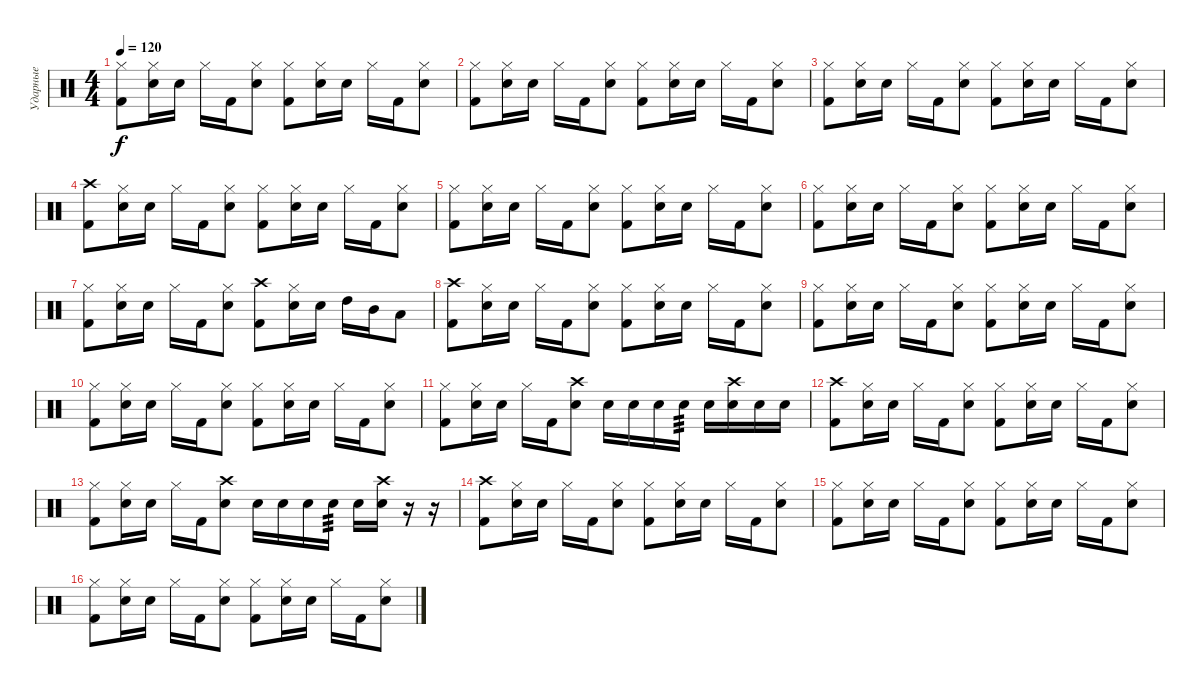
\track ("Ударные" "Ударные") {instrument percussion}
\staff {score}
\articulation defaults
\ts (4 4)
\tempo 120
\clef neutral
\ks c
("Kick (hit) 2" "Hi-Hat (closed)").8{dy f} ("Electric Snare (hit)" "Hi-Hat (closed)").16 "Electric Snare (hit)".16 "Hi-Hat (closed)".16 "Kick (hit) 2".16 ("Electric Snare (hit)" "Hi-Hat (closed)").8 ("Kick (hit) 2" "Hi-Hat (closed)").8 ("Electric Snare (hit)" "Hi-Hat (closed)").16 "Electric Snare (hit)".16 "Hi-Hat (closed)".16 "Kick (hit) 2".16 ("Electric Snare (hit)" "Hi-Hat (closed)").8 |
("Kick (hit) 2" "Hi-Hat (closed)").8 ("Electric Snare (hit)" "Hi-Hat (closed)").16 "Electric Snare (hit)".16 "Hi-Hat (closed)".16 "Kick (hit) 2".16 ("Electric Snare (hit)" "Hi-Hat (closed)").8 ("Kick (hit) 2" "Hi-Hat (closed)").8 ("Electric Snare (hit)" "Hi-Hat (closed)").16 "Electric Snare (hit)".16 "Hi-Hat (closed)".16 "Kick (hit) 2".16 ("Electric Snare (hit)" "Hi-Hat (closed)").8 |
("Kick (hit) 2" "Hi-Hat (closed)").8 ("Electric Snare (hit)" "Hi-Hat (closed)").16 "Electric Snare (hit)".16 "Hi-Hat (closed)".16 "Kick (hit) 2".16 ("Electric Snare (hit)" "Hi-Hat (closed)").8 ("Kick (hit) 2" "Hi-Hat (closed)").8 ("Electric Snare (hit)" "Hi-Hat (closed)").16 "Electric Snare (hit)".16 "Hi-Hat (closed)".16 "Kick (hit) 2".16 ("Electric Snare (hit)" "Hi-Hat (closed)").8 |
("Kick (hit) 2" "Crash high (hit)").8 ("Electric Snare (hit)" "Hi-Hat (closed)").16 "Electric Snare (hit)".16 "Hi-Hat (closed)".16 "Kick (hit) 2".16 ("Electric Snare (hit)" "Hi-Hat (closed)").8 ("Kick (hit) 2" "Hi-Hat (closed)").8 ("Electric Snare (hit)" "Hi-Hat (closed)").16 "Electric Snare (hit)".16 "Hi-Hat (closed)".16 "Kick (hit) 2".16 ("Electric Snare (hit)" "Hi-Hat (closed)").8 |
("Kick (hit) 2" "Hi-Hat (closed)").8 ("Electric Snare (hit)" "Hi-Hat (closed)").16 "Electric Snare (hit)".16 "Hi-Hat (closed)".16 "Kick (hit) 2".16 ("Electric Snare (hit)" "Hi-Hat (closed)").8 ("Kick (hit) 2" "Hi-Hat (closed)").8 ("Electric Snare (hit)" "Hi-Hat (closed)").16 "Electric Snare (hit)".16 "Hi-Hat (closed)".16 "Kick (hit) 2".16 ("Electric Snare (hit)" "Hi-Hat (closed)").8 |
("Kick (hit) 2" "Hi-Hat (closed)").8 ("Electric Snare (hit)" "Hi-Hat (closed)").16 "Electric Snare (hit)".16 "Hi-Hat (closed)".16 "Kick (hit) 2".16 ("Electric Snare (hit)" "Hi-Hat (closed)").8 ("Kick (hit) 2" "Hi-Hat (closed)").8 ("Electric Snare (hit)" "Hi-Hat (closed)").16 "Electric Snare (hit)".16 "Hi-Hat (closed)".16 "Kick (hit) 2".16 ("Electric Snare (hit)" "Hi-Hat (closed)").8 |
("Kick (hit) 2" "Hi-Hat (closed)").8 ("Electric Snare (hit)" "Hi-Hat (closed)").16 "Electric Snare (hit)".16 "Hi-Hat (closed)".16 "Kick (hit) 2".16 ("Electric Snare (hit)" "Hi-Hat (closed)").8 ("Kick (hit) 2" "Crash high (hit)").8 ("Electric Snare (hit)" "Hi-Hat (closed)").16 "Electric Snare (hit)".16 "High Tom (hit)".16 "Mid Tom (hit)".16 "Low Tom (hit)".8 |
("Kick (hit) 2" "Crash high (hit)").8 ("Electric Snare (hit)" "Hi-Hat (closed)").16 "Electric Snare (hit)".16 "Hi-Hat (closed)".16 "Kick (hit) 2".16 ("Electric Snare (hit)" "Hi-Hat (closed)").8 ("Kick (hit) 2" "Hi-Hat (closed)").8 ("Electric Snare (hit)" "Hi-Hat (closed)").16 "Electric Snare (hit)".16 "Hi-Hat (closed)".16 "Kick (hit) 2".16 ("Electric Snare (hit)" "Hi-Hat (closed)").8 |
("Kick (hit) 2" "Hi-Hat (closed)").8 ("Electric Snare (hit)" "Hi-Hat (closed)").16 "Electric Snare (hit)".16 "Hi-Hat (closed)".16 "Kick (hit) 2".16 ("Electric Snare (hit)" "Hi-Hat (closed)").8 ("Kick (hit) 2" "Hi-Hat (closed)").8 ("Electric Snare (hit)" "Hi-Hat (closed)").16 "Electric Snare (hit)".16 "Hi-Hat (closed)".16 "Kick (hit) 2".16 ("Electric Snare (hit)" "Hi-Hat (closed)").8 |
("Kick (hit) 2" "Hi-Hat (closed)").8 ("Electric Snare (hit)" "Hi-Hat (closed)").16 "Electric Snare (hit)".16 "Hi-Hat (closed)".16 "Kick (hit) 2".16 ("Electric Snare (hit)" "Hi-Hat (closed)").8 ("Kick (hit) 2" "Hi-Hat (closed)").8 ("Electric Snare (hit)" "Hi-Hat (closed)").16 "Electric Snare (hit)".16 "Hi-Hat (closed)".16 "Kick (hit) 2".16 ("Electric Snare (hit)" "Hi-Hat (closed)").8 |
("Kick (hit) 2" "Hi-Hat (closed)").8 ("Electric Snare (hit)" "Hi-Hat (closed)").16 "Electric Snare (hit)".16 "Hi-Hat (closed)".16 "Kick (hit) 2".16 ("Electric Snare (hit)" "Crash high (hit)").8 "Electric Snare (hit)".16 "Electric Snare (hit)".16 "Electric Snare (hit)".16 "Electric Snare (hit)".16{tp 3} "Electric Snare (hit)".16 ("Electric Snare (hit)" "Crash high (hit)").16 "Electric Snare (hit)".16 "Electric Snare (hit)".16 |
("Kick (hit) 2" "Crash high (hit)").8 ("Electric Snare (hit)" "Hi-Hat (closed)").16 "Electric Snare (hit)".16 "Hi-Hat (closed)".16 "Kick (hit) 2".16 ("Electric Snare (hit)" "Hi-Hat (closed)").8 ("Kick (hit) 2" "Hi-Hat (closed)").8 ("Electric Snare (hit)" "Hi-Hat (closed)").16 "Electric Snare (hit)".16 "Hi-Hat (closed)".16 "Kick (hit) 2".16 ("Electric Snare (hit)" "Hi-Hat (closed)").8 |
("Kick (hit) 2" "Hi-Hat (closed)").8 ("Electric Snare (hit)" "Hi-Hat (closed)").16 "Electric Snare (hit)".16 "Hi-Hat (closed)".16 "Kick (hit) 2".16 ("Electric Snare (hit)" "Crash high (hit)").8 "Electric Snare (hit)".16 "Electric Snare (hit)".16 "Electric Snare (hit)".16 "Electric Snare (hit)".16{tp 3} "Electric Snare (hit)".16 ("Electric Snare (hit)" "Crash high (hit)").16 r.16 r.16 |
("Kick (hit) 2" "Crash high (hit)").8 ("Electric Snare (hit)" "Hi-Hat (closed)").16 "Electric Snare (hit)".16 "Hi-Hat (closed)".16 "Kick (hit) 2".16 ("Electric Snare (hit)" "Hi-Hat (closed)").8 ("Kick (hit) 2" "Hi-Hat (closed)").8 ("Electric Snare (hit)" "Hi-Hat (closed)").16 "Electric Snare (hit)".16 "Hi-Hat (closed)".16 "Kick (hit) 2".16 ("Electric Snare (hit)" "Hi-Hat (closed)").8 |
("Kick (hit) 2" "Hi-Hat (closed)").8 ("Electric Snare (hit)" "Hi-Hat (closed)").16 "Electric Snare (hit)".16 "Hi-Hat (closed)".16 "Kick (hit) 2".16 ("Electric Snare (hit)" "Hi-Hat (closed)").8 ("Kick (hit) 2" "Hi-Hat (closed)").8 ("Electric Snare (hit)" "Hi-Hat (closed)").16 "Electric Snare (hit)".16 "Hi-Hat (closed)".16 "Kick (hit) 2".16 ("Electric Snare (hit)" "Hi-Hat (closed)").8 |
("Kick (hit) 2" "Hi-Hat (closed)").8 ("Electric Snare (hit)" "Hi-Hat (closed)").16 "Electric Snare (hit)".16 "Hi-Hat (closed)".16 "Kick (hit) 2".16 ("Electric Snare (hit)" "Hi-Hat (closed)").8 ("Kick (hit) 2" "Hi-Hat (closed)").8 ("Electric Snare (hit)" "Hi-Hat (closed)").16 "Electric Snare (hit)".16 "Hi-Hat (closed)".16 "Kick (hit) 2".16 ("Electric Snare (hit)" "Hi-Hat (closed)").8
